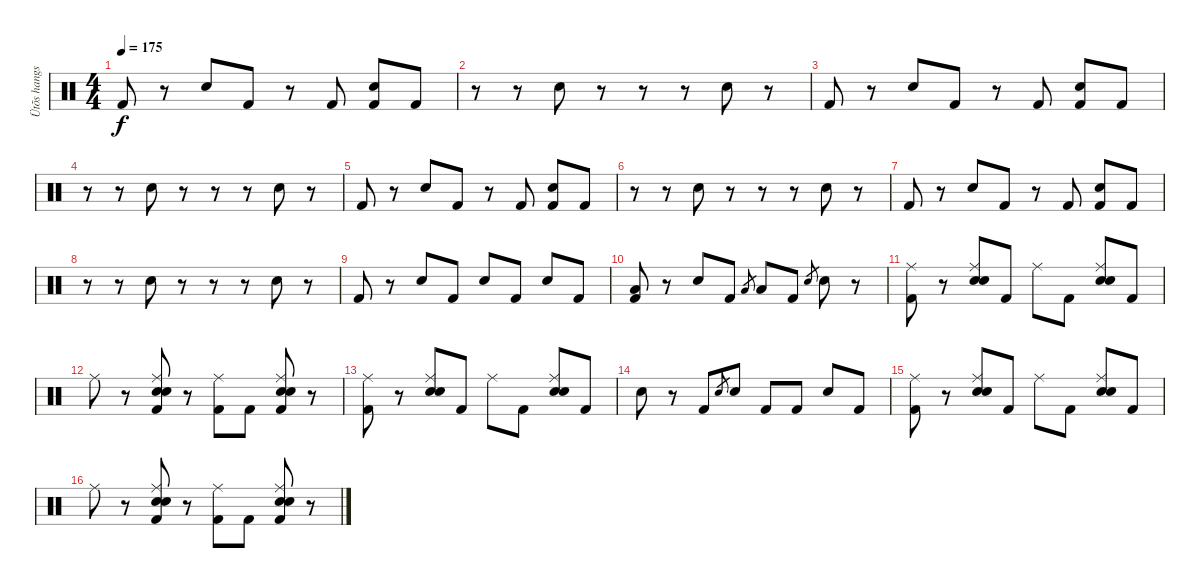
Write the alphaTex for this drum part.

\track ("Ütõs hangszer" "Ütõs hangs") {instrument percussion}
\staff {score}
\articulation defaults
\ts (4 4)
\tempo 175
\clef neutral
\ks c "Kick (hit) 2".8{dy f}
r.8 "Snare (hit) 2".8 "Kick (hit) 2".8 r.8 "Kick (hit) 2".8 ("Snare (hit) 2" "Kick (hit) 2").8 "Kick (hit) 2".8 |
r.8 r.8 "Snare (hit) 2".8 r.8 r.8 r.8 "Snare (hit) 2".8 r.8 |
"Kick (hit) 2".8 r.8 "Snare (hit) 2".8 "Kick (hit) 2".8 r.8 "Kick (hit) 2".8 ("Snare (hit) 2" "Kick (hit) 2").8 "Kick (hit) 2".8 |
r.8 r.8 "Snare (hit) 2".8 r.8 r.8 r.8 "Snare (hit) 2".8 r.8 |
"Kick (hit) 2".8 r.8 "Snare (hit) 2".8 "Kick (hit) 2".8 r.8 "Kick (hit) 2".8 ("Snare (hit) 2" "Kick (hit) 2").8 "Kick (hit) 2".8 |
r.8 r.8 "Snare (hit) 2".8 r.8 r.8 r.8 "Snare (hit) 2".8 r.8 |
"Kick (hit) 2".8 r.8 "Snare (hit) 2".8 "Kick (hit) 2".8 r.8 "Kick (hit) 2".8 ("Snare (hit) 2" "Kick (hit) 2").8 "Kick (hit) 2".8 |
r.8 r.8 "Snare (hit) 2".8 r.8 r.8 r.8 "Snare (hit) 2".8 r.8 |
"Kick (hit) 2".8 r.8 "Snare (hit) 2".8 "Kick (hit) 2".8 "Snare (hit) 2".8 "Kick (hit) 2".8 "Snare (hit) 2".8 "Kick (hit) 2".8 |
("Low Floor Tom (hit)" "Kick (hit) 2").8 r.8 "Snare (hit) 2".8 "Kick (hit) 2".8 "Low Floor Tom (hit)".8{gr} "Low Floor Tom (hit)".8 "Kick (hit) 2".8 "Snare (hit) 2".8{gr} "Snare (hit) 2".8 r.8 |
("Ride (middle)" "Kick (hit) 2").8 r.8 ("Hand Clap (hit)" "Ride (middle)" "Snare (hit) 2").8 "Kick (hit) 2".8 "Ride (middle)".8 "Kick (hit) 2".8 ("Hand Clap (hit)" "Ride (middle)" "Snare (hit) 2").8 "Kick (hit) 2".8 |
"Ride (middle)".8 r.8 ("Hand Clap (hit)" "Ride (middle)" "Snare (hit) 2" "Kick (hit) 2").8 r.8 ("Ride (middle)" "Kick (hit) 2").8 "Kick (hit) 2".8 ("Hand Clap (hit)" "Ride (middle)" "Snare (hit) 2" "Kick (hit) 2").8 r.8 |
("Ride (middle)" "Kick (hit) 2").8 r.8 ("Hand Clap (hit)" "Ride (middle)" "Snare (hit) 2").8 "Kick (hit) 2".8 "Ride (middle)".8 "Kick (hit) 2".8 ("Hand Clap (hit)" "Ride (middle)" "Snare (hit) 2").8 "Kick (hit) 2".8 |
"Snare (hit) 2".8 r.8 "Kick (hit) 2".8 "Snare (hit) 2".8{gr} "Snare (hit) 2".8 "Kick (hit) 2".8 "Kick (hit) 2".8 "Snare (hit) 2".8 "Kick (hit) 2".8 |
("Ride (middle)" "Kick (hit) 2").8 r.8 ("Hand Clap (hit)" "Ride (middle)" "Snare (hit) 2").8 "Kick (hit) 2".8 "Ride (middle)".8 "Kick (hit) 2".8 ("Hand Clap (hit)" "Ride (middle)" "Snare (hit) 2").8 "Kick (hit) 2".8 |
"Ride (middle)".8 r.8 ("Hand Clap (hit)" "Ride (middle)" "Snare (hit) 2" "Kick (hit) 2").8 r.8 ("Ride (middle)" "Kick (hit) 2").8 "Kick (hit) 2".8 ("Hand Clap (hit)" "Ride (middle)" "Snare (hit) 2" "Kick (hit) 2").8 r.8
